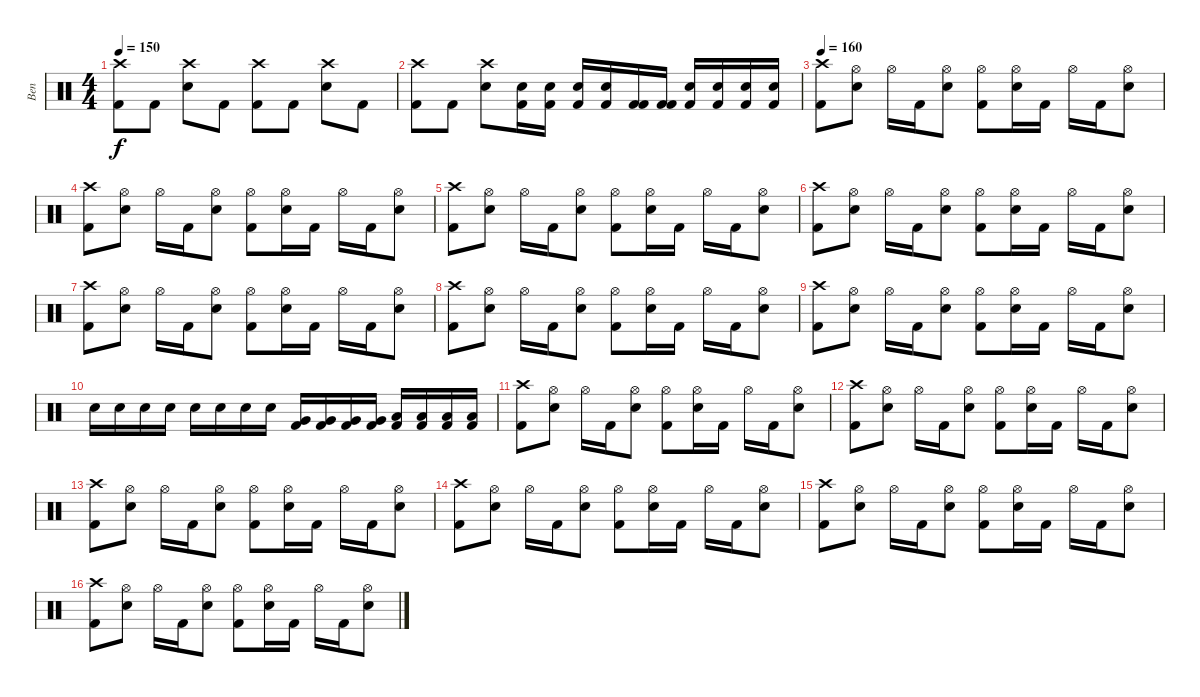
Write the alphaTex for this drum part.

\track ("Ben" "Ben") {instrument percussion}
\staff {score}
\articulation defaults
\ts (4 4)
\tempo 150
\clef neutral
\ks c
("Crash high (hit)" "Kick (hit) 2").8{dy f} "Kick (hit) 2".8 ("Crash high (hit)" "Snare (hit) 2").8 "Kick (hit) 2".8 ("Crash high (hit)" "Kick (hit) 2").8 "Kick (hit) 2".8 ("Crash high (hit)" "Snare (hit) 2").8 "Kick (hit) 2".8 |
("Crash high (hit)" "Kick (hit) 2").8 "Kick (hit) 2".8 ("Crash high (hit)" "Snare (hit) 2").8 ("Kick (hit) 2" "Snare (hit) 2").16 ("Kick (hit) 2" "Snare (hit) 2").16 ("Kick (hit) 2" "Snare (hit) 2").16 ("Kick (hit) 2" "Snare (hit) 2").16 ("Kick (hit) 2" "Kick (hit) 2").16 ("Kick (hit) 2" "Kick (hit) 2").16 ("Kick (hit) 2" "Snare (hit) 2").16 ("Kick (hit) 2" "Snare (hit) 2").16 ("Kick (hit) 2" "Snare (hit) 2").16 ("Kick (hit) 2" "Snare (hit) 2").16 |
\tempo 160
("Crash high (hit)" "Kick (hit) 2").8 ("Hi-Hat (open)" "Snare (hit) 2").8 "Hi-Hat (open)".16 "Kick (hit) 2".16 ("Hi-Hat (open)" "Snare (hit) 2").8 ("Hi-Hat (open)" "Kick (hit) 2").8 ("Hi-Hat (open)" "Snare (hit) 2").16 "Kick (hit) 2".16 "Hi-Hat (open)".16 "Kick (hit) 2".16 ("Hi-Hat (open)" "Snare (hit) 2").8 |
("Crash high (hit)" "Kick (hit) 2").8 ("Hi-Hat (open)" "Snare (hit) 2").8 "Hi-Hat (open)".16 "Kick (hit) 2".16 ("Hi-Hat (open)" "Snare (hit) 2").8 ("Hi-Hat (open)" "Kick (hit) 2").8 ("Hi-Hat (open)" "Snare (hit) 2").16 "Kick (hit) 2".16 "Hi-Hat (open)".16 "Kick (hit) 2".16 ("Hi-Hat (open)" "Snare (hit) 2").8 |
("Crash high (hit)" "Kick (hit) 2").8 ("Hi-Hat (open)" "Snare (hit) 2").8 "Hi-Hat (open)".16 "Kick (hit) 2".16 ("Hi-Hat (open)" "Snare (hit) 2").8 ("Hi-Hat (open)" "Kick (hit) 2").8 ("Hi-Hat (open)" "Snare (hit) 2").16 "Kick (hit) 2".16 "Hi-Hat (open)".16 "Kick (hit) 2".16 ("Hi-Hat (open)" "Snare (hit) 2").8 |
("Crash high (hit)" "Kick (hit) 2").8 ("Hi-Hat (open)" "Snare (hit) 2").8 "Hi-Hat (open)".16 "Kick (hit) 2".16 ("Hi-Hat (open)" "Snare (hit) 2").8 ("Hi-Hat (open)" "Kick (hit) 2").8 ("Hi-Hat (open)" "Snare (hit) 2").16 "Kick (hit) 2".16 "Hi-Hat (open)".16 "Kick (hit) 2".16 ("Hi-Hat (open)" "Snare (hit) 2").8 |
("Crash high (hit)" "Kick (hit) 2").8 ("Hi-Hat (open)" "Snare (hit) 2").8 "Hi-Hat (open)".16 "Kick (hit) 2".16 ("Hi-Hat (open)" "Snare (hit) 2").8 ("Hi-Hat (open)" "Kick (hit) 2").8 ("Hi-Hat (open)" "Snare (hit) 2").16 "Kick (hit) 2".16 "Hi-Hat (open)".16 "Kick (hit) 2".16 ("Hi-Hat (open)" "Snare (hit) 2").8 |
("Crash high (hit)" "Kick (hit) 2").8 ("Hi-Hat (open)" "Snare (hit) 2").8 "Hi-Hat (open)".16 "Kick (hit) 2".16 ("Hi-Hat (open)" "Snare (hit) 2").8 ("Hi-Hat (open)" "Kick (hit) 2").8 ("Hi-Hat (open)" "Snare (hit) 2").16 "Kick (hit) 2".16 "Hi-Hat (open)".16 "Kick (hit) 2".16 ("Hi-Hat (open)" "Snare (hit) 2").8 |
("Crash high (hit)" "Kick (hit) 2").8 ("Hi-Hat (open)" "Snare (hit) 2").8 "Hi-Hat (open)".16 "Kick (hit) 2".16 ("Hi-Hat (open)" "Snare (hit) 2").8 ("Hi-Hat (open)" "Kick (hit) 2").8 ("Hi-Hat (open)" "Snare (hit) 2").16 "Kick (hit) 2".16 "Hi-Hat (open)".16 "Kick (hit) 2".16 ("Hi-Hat (open)" "Snare (hit) 2").8 |
"Snare (hit) 2".16 "Snare (hit) 2".16 "Snare (hit) 2".16 "Snare (hit) 2".16 "Snare (hit) 2".16 "Snare (hit) 2".16 "Snare (hit) 2".16 "Snare (hit) 2".16 ("Kick (hit) 2" "Very Low Tom (hit)").16 ("Kick (hit) 2" "Very Low Tom (hit)").16 ("Kick (hit) 2" "Very Low Tom (hit)").16 ("Kick (hit) 2" "Very Low Tom (hit)").16 ("Kick (hit) 2" "Low Floor Tom (hit)").16 ("Kick (hit) 2" "Low Floor Tom (hit)").16 ("Kick (hit) 2" "Low Floor Tom (hit)").16 ("Kick (hit) 2" "Low Floor Tom (hit)").16 |
("Crash high (hit)" "Kick (hit) 2").8 ("Hi-Hat (open)" "Snare (hit) 2").8 "Hi-Hat (open)".16 "Kick (hit) 2".16 ("Hi-Hat (open)" "Snare (hit) 2").8 ("Hi-Hat (open)" "Kick (hit) 2").8 ("Hi-Hat (open)" "Snare (hit) 2").16 "Kick (hit) 2".16 "Hi-Hat (open)".16 "Kick (hit) 2".16 ("Hi-Hat (open)" "Snare (hit) 2").8 |
("Crash high (hit)" "Kick (hit) 2").8 ("Hi-Hat (open)" "Snare (hit) 2").8 "Hi-Hat (open)".16 "Kick (hit) 2".16 ("Hi-Hat (open)" "Snare (hit) 2").8 ("Hi-Hat (open)" "Kick (hit) 2").8 ("Hi-Hat (open)" "Snare (hit) 2").16 "Kick (hit) 2".16 "Hi-Hat (open)".16 "Kick (hit) 2".16 ("Hi-Hat (open)" "Snare (hit) 2").8 |
("Crash high (hit)" "Kick (hit) 2").8 ("Hi-Hat (open)" "Snare (hit) 2").8 "Hi-Hat (open)".16 "Kick (hit) 2".16 ("Hi-Hat (open)" "Snare (hit) 2").8 ("Hi-Hat (open)" "Kick (hit) 2").8 ("Hi-Hat (open)" "Snare (hit) 2").16 "Kick (hit) 2".16 "Hi-Hat (open)".16 "Kick (hit) 2".16 ("Hi-Hat (open)" "Snare (hit) 2").8 |
("Crash high (hit)" "Kick (hit) 2").8 ("Hi-Hat (open)" "Snare (hit) 2").8 "Hi-Hat (open)".16 "Kick (hit) 2".16 ("Hi-Hat (open)" "Snare (hit) 2").8 ("Hi-Hat (open)" "Kick (hit) 2").8 ("Hi-Hat (open)" "Snare (hit) 2").16 "Kick (hit) 2".16 "Hi-Hat (open)".16 "Kick (hit) 2".16 ("Hi-Hat (open)" "Snare (hit) 2").8 |
("Crash high (hit)" "Kick (hit) 2").8 ("Hi-Hat (open)" "Snare (hit) 2").8 "Hi-Hat (open)".16 "Kick (hit) 2".16 ("Hi-Hat (open)" "Snare (hit) 2").8 ("Hi-Hat (open)" "Kick (hit) 2").8 ("Hi-Hat (open)" "Snare (hit) 2").16 "Kick (hit) 2".16 "Hi-Hat (open)".16 "Kick (hit) 2".16 ("Hi-Hat (open)" "Snare (hit) 2").8 |
("Crash high (hit)" "Kick (hit) 2").8 ("Hi-Hat (open)" "Snare (hit) 2").8 "Hi-Hat (open)".16 "Kick (hit) 2".16 ("Hi-Hat (open)" "Snare (hit) 2").8 ("Hi-Hat (open)" "Kick (hit) 2").8 ("Hi-Hat (open)" "Snare (hit) 2").16 "Kick (hit) 2".16 "Hi-Hat (open)".16 "Kick (hit) 2".16 ("Hi-Hat (open)" "Snare (hit) 2").8
